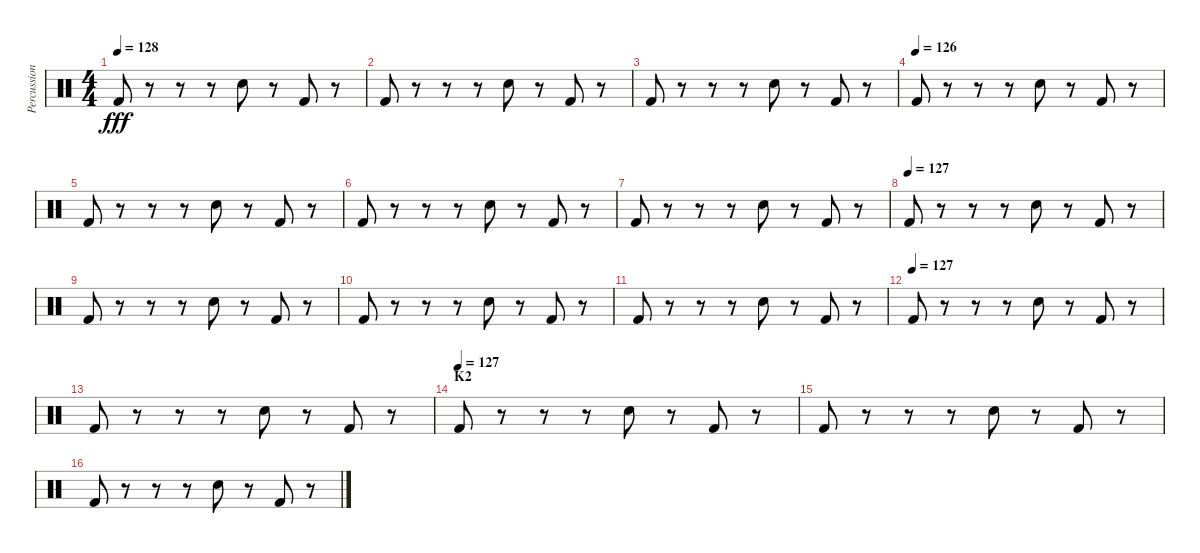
\track ("Percussion" "Percussion") {instrument percussion}
\staff {score}
\articulation defaults
\ts (4 4)
\tempo 128
\clef neutral
\ks c "Kick (hit) 2".8{dy fff}
r.8 r.8 r.8 "Electric Snare (hit)".8 r.8 "Kick (hit) 2".8 r.8 |
"Kick (hit) 2".8 r.8 r.8 r.8 "Electric Snare (hit)".8 r.8 "Kick (hit) 2".8 r.8 |
"Kick (hit) 2".8 r.8 r.8 r.8 "Electric Snare (hit)".8 r.8 "Kick (hit) 2".8 r.8 |
\tempo (126)
"Kick (hit) 2".8 r.8 r.8 r.8 "Electric Snare (hit)".8 r.8 "Kick (hit) 2".8 r.8 |
"Kick (hit) 2".8 r.8 r.8 r.8 "Electric Snare (hit)".8 r.8 "Kick (hit) 2".8 r.8 |
"Kick (hit) 2".8 r.8 r.8 r.8 "Electric Snare (hit)".8 r.8 "Kick (hit) 2".8 r.8 |
"Kick (hit) 2".8 r.8 r.8 r.8 "Electric Snare (hit)".8 r.8 "Kick (hit) 2".8 r.8 |
\tempo (127)
"Kick (hit) 2".8 r.8 r.8 r.8 "Electric Snare (hit)".8 r.8 "Kick (hit) 2".8 r.8 |
"Kick (hit) 2".8 r.8 r.8 r.8 "Electric Snare (hit)".8 r.8 "Kick (hit) 2".8 r.8 |
"Kick (hit) 2".8 r.8 r.8 r.8 "Electric Snare (hit)".8 r.8 "Kick (hit) 2".8 r.8 |
"Kick (hit) 2".8 r.8 r.8 r.8 "Electric Snare (hit)".8 r.8 "Kick (hit) 2".8 r.8 |
\tempo (127)
"Kick (hit) 2".8 r.8 r.8 r.8 "Electric Snare (hit)".8 r.8 "Kick (hit) 2".8 r.8 |
"Kick (hit) 2".8 r.8 r.8 r.8 "Electric Snare (hit)".8 r.8 "Kick (hit) 2".8 r.8 |
\section ("" "K2")
\tempo (127)
"Kick (hit) 2".8 r.8 r.8 r.8 "Electric Snare (hit)".8 r.8 "Kick (hit) 2".8 r.8 |
"Kick (hit) 2".8 r.8 r.8 r.8 "Electric Snare (hit)".8 r.8 "Kick (hit) 2".8 r.8 |
"Kick (hit) 2".8 r.8 r.8 r.8 "Electric Snare (hit)".8 r.8 "Kick (hit) 2".8 r.8
